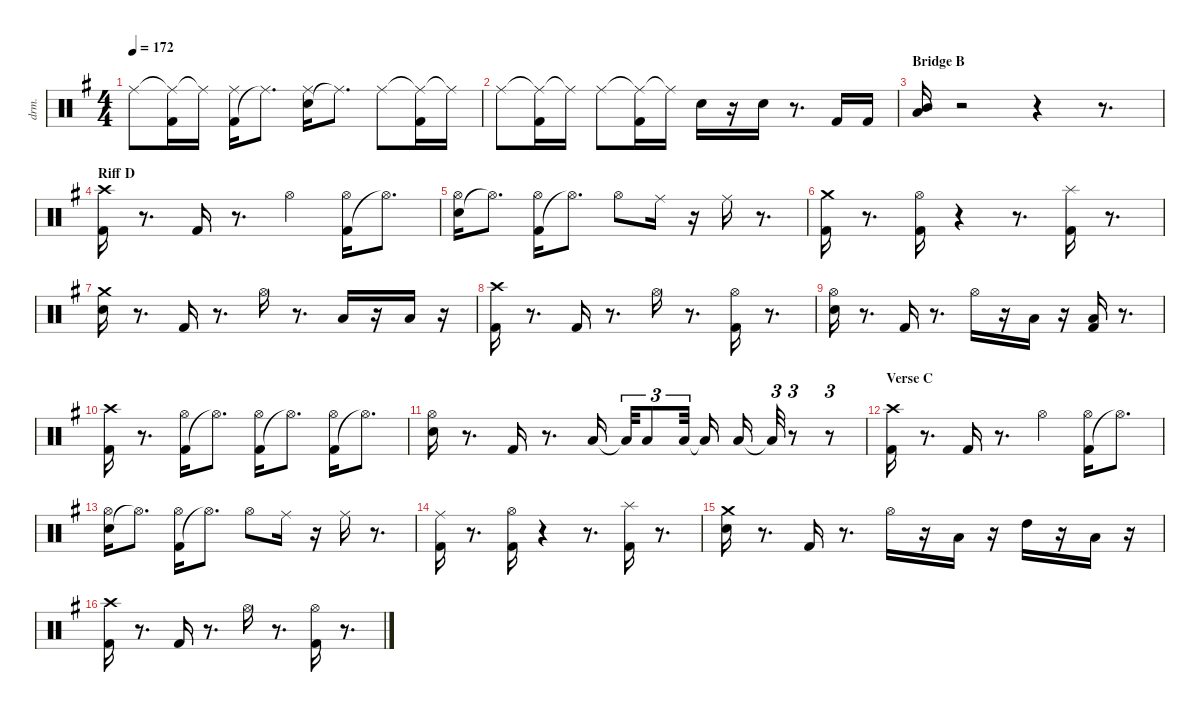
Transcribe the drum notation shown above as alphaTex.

\defaultSystemsLayout 4
\hideDynamics
\bracketExtendMode nobrackets
\otherSystemsTrackNameOrientation horizontal
\track ("Shinya" "drm.") {instrument percussion}
\staff {score}
\articulation defaults
\ts (4 4)
\tempo 172
\clef neutral
\ks eminor "Ride (middle)"{acc #}.8{dy fff beam Down}
("Ride (middle)"{t acc #} "Kick (hit) 2"{acc forcenatural}).16{beam Down} "Ride (middle)"{t acc #}.16{beam Down} ("Kick (hit) 2"{acc forcenatural} "Ride (middle)"{acc #}).16{beam Down} "Ride (middle)"{t acc #}.8{d beam Down} ("Snare (hit) 2"{acc forcenatural} "Ride (middle)"{acc #}).16{beam Down} "Ride (middle)"{t acc #}.8{d beam Down} "Ride (middle)"{acc #}.8{beam Down} ("Ride (middle)"{t acc #} "Kick (hit) 2"{acc forcenatural}).16{beam Down} "Ride (middle)"{t acc #}.16{beam Down} |
"Ride (middle)"{acc #}.8{beam Down} ("Ride (middle)"{t acc #} "Kick (hit) 2"{acc forcenatural}).16{beam Down} "Ride (middle)"{t acc #}.16{beam Down} "Ride (middle)"{acc #}.8{beam Down} ("Ride (middle)"{t acc #} "Kick (hit) 2"{acc forcenatural}).16{beam Down} "Ride (middle)"{t acc #}.16{beam Down} "Snare (hit) 2"{acc forcenatural}.16{beam Down} r.16{beam Down} "Snare (hit) 2"{acc forcenatural}.16{beam Down} r.8{d beam Down} "Kick (hit) 2"{acc forcenatural}.16{beam Up} "Kick (hit) 2"{acc forcenatural}.16{beam Up} |
\section ("" "Bridge B")
("Low Tom (hit)"{acc forcenatural} "Mid Tom (hit)"{acc forcenatural}).16{beam Up} r.2{beam Up} r.4{beam Up} r.8{d beam Up} |
\section ("" "Riff D")
("Kick (hit) 2"{acc forcenatural} "Crash high (hit)"{acc #}).16{beam Down} r.8{d beam Down} "Kick (hit) 2"{acc forcenatural}.16{beam Up} r.8{d beam Up} "Hi-Hat (open)"{acc #}.4{beam Down} ("Kick (hit) 2"{acc forcenatural} "Hi-Hat (open)"{acc #}).16{beam Down} "Hi-Hat (open)"{t acc #}.8{d beam Down} |
("Snare (hit) 2"{acc forcenatural} "Hi-Hat (open)"{acc #}).16{beam Down} "Hi-Hat (open)"{t acc #}.8{d beam Down} ("Kick (hit) 2"{acc forcenatural} "Hi-Hat (open)"{acc #}).16{beam Down} "Hi-Hat (open)"{t acc #}.8{d beam Down} "Hi-Hat (open)"{acc #}.8{beam Down} "Ride (middle)"{acc #}.16{beam Down} r.16{beam Down} "Ride (middle)"{acc #}.16{beam Down} r.8{d beam Down} |
("Kick (hit) 2"{acc forcenatural} "Crash medium (hit)"{acc forcenatural}).16{beam Down} r.8{d beam Down} ("Kick (hit) 2"{acc forcenatural} "Hi-Hat (open)"{acc #}).16{beam Down} r.4{beam Down} r.8{d beam Down} ("Kick (hit) 2"{acc forcenatural} "Splash (hit)"{acc forcenatural}).16{beam Down} r.8{d beam Down} |
("Snare (hit) 2"{acc forcenatural} "Crash medium (hit)"{acc forcenatural}).16{beam Down} r.8{d beam Down} "Kick (hit) 2"{acc forcenatural}.16{beam Up} r.8{d beam Up} "Hi-Hat (open)"{acc #}.16{beam Down} r.8{d beam Down} "Low Tom (hit)"{acc forcenatural}.16{beam Up} r.16{beam Up} "Low Tom (hit)"{acc forcenatural}.16{beam Up} r.16{beam Up} |
("Kick (hit) 2"{acc forcenatural} "Crash high (hit)"{acc #}).16{beam Down} r.8{d beam Down} "Kick (hit) 2"{acc forcenatural}.16{beam Up} r.8{d beam Up} "Hi-Hat (open)"{acc #}.16{beam Down} r.8{d beam Down} ("Kick (hit) 2"{acc forcenatural} "Hi-Hat (open)"{acc #}).16{beam Down} r.8{d beam Down} |
("Snare (hit) 2"{acc forcenatural} "Hi-Hat (open)"{acc #}).16{beam Down} r.8{d beam Down} "Kick (hit) 2"{acc forcenatural}.16{beam Up} r.8{d beam Up} "Hi-Hat (open)"{acc #}.16{beam Down} r.16{beam Down} "Low Tom (hit)"{acc forcenatural}.16{beam Up} r.16{beam Up} ("Kick (hit) 2"{acc forcenatural} "Low Tom (hit)"{acc forcenatural}).16{beam Up} r.8{d beam Up} |
("Kick (hit) 2"{acc forcenatural} "Crash high (hit)"{acc #}).16{beam Down} r.8{d beam Down} ("Kick (hit) 2"{acc forcenatural} "Hi-Hat (open)"{acc #}).16{beam Down} "Hi-Hat (open)"{t acc #}.8{d beam Down} ("Kick (hit) 2"{acc forcenatural} "Hi-Hat (open)"{acc #}).16{beam Down} "Hi-Hat (open)"{t acc #}.8{d beam Down} ("Kick (hit) 2"{acc forcenatural} "Hi-Hat (open)"{acc #}).16{dy ff beam Down} "Hi-Hat (open)"{t acc #}.8{d beam Down} |
("Snare (hit) 2"{acc forcenatural} "Hi-Hat (open)"{acc #}).16{dy fff beam Down} r.8{d beam Down} "Kick (hit) 2"{acc forcenatural}.16{beam Up} r.8{d beam Up} "Low Tom (hit)"{acc forcenatural}.16{dy ff beam Up} "Low Tom (hit)"{t acc forcenatural}.32{tu (3 2) beam Up} "Low Tom (hit)"{acc forcenatural}.8{tu (3 2) dy fff beam Up} "Low Tom (hit)"{acc forcenatural}.32{tu (3 2) beam Up} "Low Tom (hit)"{t acc forcenatural}.16{beam Up} "Low Tom (hit)"{acc forcenatural}.16{beam Up} "Low Tom (hit)"{t acc forcenatural}.32{tu (3 2) beam Up} r.8{tu (3 2) beam Up} r.8{tu (3 2) beam Up} |
\section ("" "Verse C")
("Kick (hit) 2"{acc forcenatural} "Crash high (hit)"{acc #}).16{beam Down} r.8{d beam Down} "Kick (hit) 2"{acc forcenatural}.16{beam Up} r.8{d beam Up} "Hi-Hat (open)"{acc #}.4{beam Down} ("Kick (hit) 2"{acc forcenatural} "Hi-Hat (open)"{acc #}).16{beam Down} "Hi-Hat (open)"{t acc #}.8{d beam Down} |
("Snare (hit) 2"{acc forcenatural} "Hi-Hat (open)"{acc #}).16{beam Down} "Hi-Hat (open)"{t acc #}.8{d beam Down} ("Kick (hit) 2"{acc forcenatural} "Hi-Hat (open)"{acc #}).16{beam Down} "Hi-Hat (open)"{t acc #}.8{d beam Down} "Hi-Hat (open)"{acc #}.8{beam Down} "Ride (middle)"{acc #}.16{beam Down} r.16{beam Down} "Ride (middle)"{acc #}.16{beam Down} r.8{d beam Down} |
("Kick (hit) 2"{acc forcenatural} "Ride (middle)"{acc #}).16{beam Down} r.8{d beam Down} ("Kick (hit) 2"{acc forcenatural} "Hi-Hat (open)"{acc #}).16{beam Down} r.4{beam Down} r.8{d beam Down} ("Kick (hit) 2"{acc forcenatural} "Splash (hit)"{acc forcenatural}).16{beam Down} r.8{d beam Down} |
("Snare (hit) 2"{acc forcenatural} "Crash medium (hit)"{acc forcenatural}).16{beam Down} r.8{d beam Down} "Kick (hit) 2"{acc forcenatural}.16{beam Up} r.8{d beam Up} "Hi-Hat (open)"{acc #}.16{beam Down} r.16{beam Down} "Low Tom (hit)"{acc forcenatural}.16{dy ff beam Up} r.16{beam Up} "High Tom (hit)"{acc forcenatural}.16{dy fff beam Down} r.16{beam Down} "Low Tom (hit)"{acc forcenatural}.16{beam Up} r.16{beam Up} |
("Kick (hit) 2"{acc forcenatural} "Crash high (hit)"{acc #}).16{beam Down} r.8{d beam Down} "Kick (hit) 2"{acc forcenatural}.16{beam Up} r.8{d beam Up} "Hi-Hat (open)"{acc #}.16{beam Down} r.8{d beam Down} ("Kick (hit) 2"{acc forcenatural} "Hi-Hat (open)"{acc #}).16{beam Down} r.8{d beam Down}
